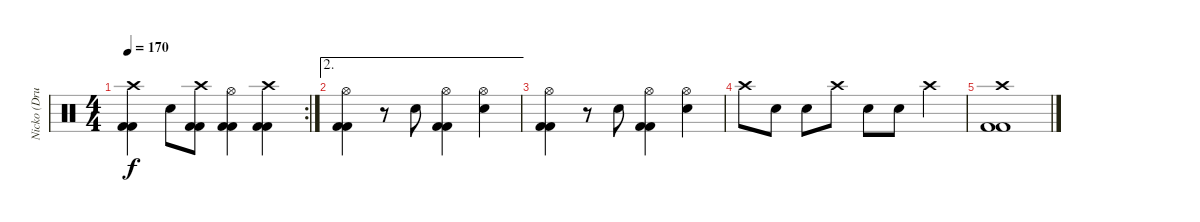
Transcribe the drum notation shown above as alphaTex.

\track ("Nicko (Drums)" "Nicko (Dru") {instrument percussion}
\staff {score}
\articulation defaults
\rc 2
\ts (4 4)
\tempo 170
\clef neutral
\ks c
("Crash high (hit)" "Kick (hit) 2" "Kick (hit) 2").4{dy f} "Snare (hit) 2".8 ("Crash high (hit)" "Kick (hit) 2" "Kick (hit) 2").8 ("Hi-Hat (open)" "Kick (hit) 2" "Kick (hit) 2").4 ("Crash high (hit)" "Kick (hit) 2" "Kick (hit) 2").4 |
\ae 2
("Hi-Hat (open)" "Kick (hit) 2" "Kick (hit) 2").4 r.8 "Snare (hit) 2".8 ("Hi-Hat (open)" "Kick (hit) 2" "Kick (hit) 2").4 ("Hi-Hat (open)" "Snare (hit) 2").4 |
("Hi-Hat (open)" "Kick (hit) 2" "Kick (hit) 2").4 r.8 "Snare (hit) 2".8 ("Hi-Hat (open)" "Kick (hit) 2" "Kick (hit) 2").4 ("Hi-Hat (open)" "Snare (hit) 2").4 |
"Crash high (hit)".8 "Snare (hit) 2".8 "Snare (hit) 2".8 "Crash high (hit)".8 "Snare (hit) 2".8 "Snare (hit) 2".8 "Crash high (hit)".4 |
("Crash high (hit)" "Kick (hit) 2" "Kick (hit) 2").1
